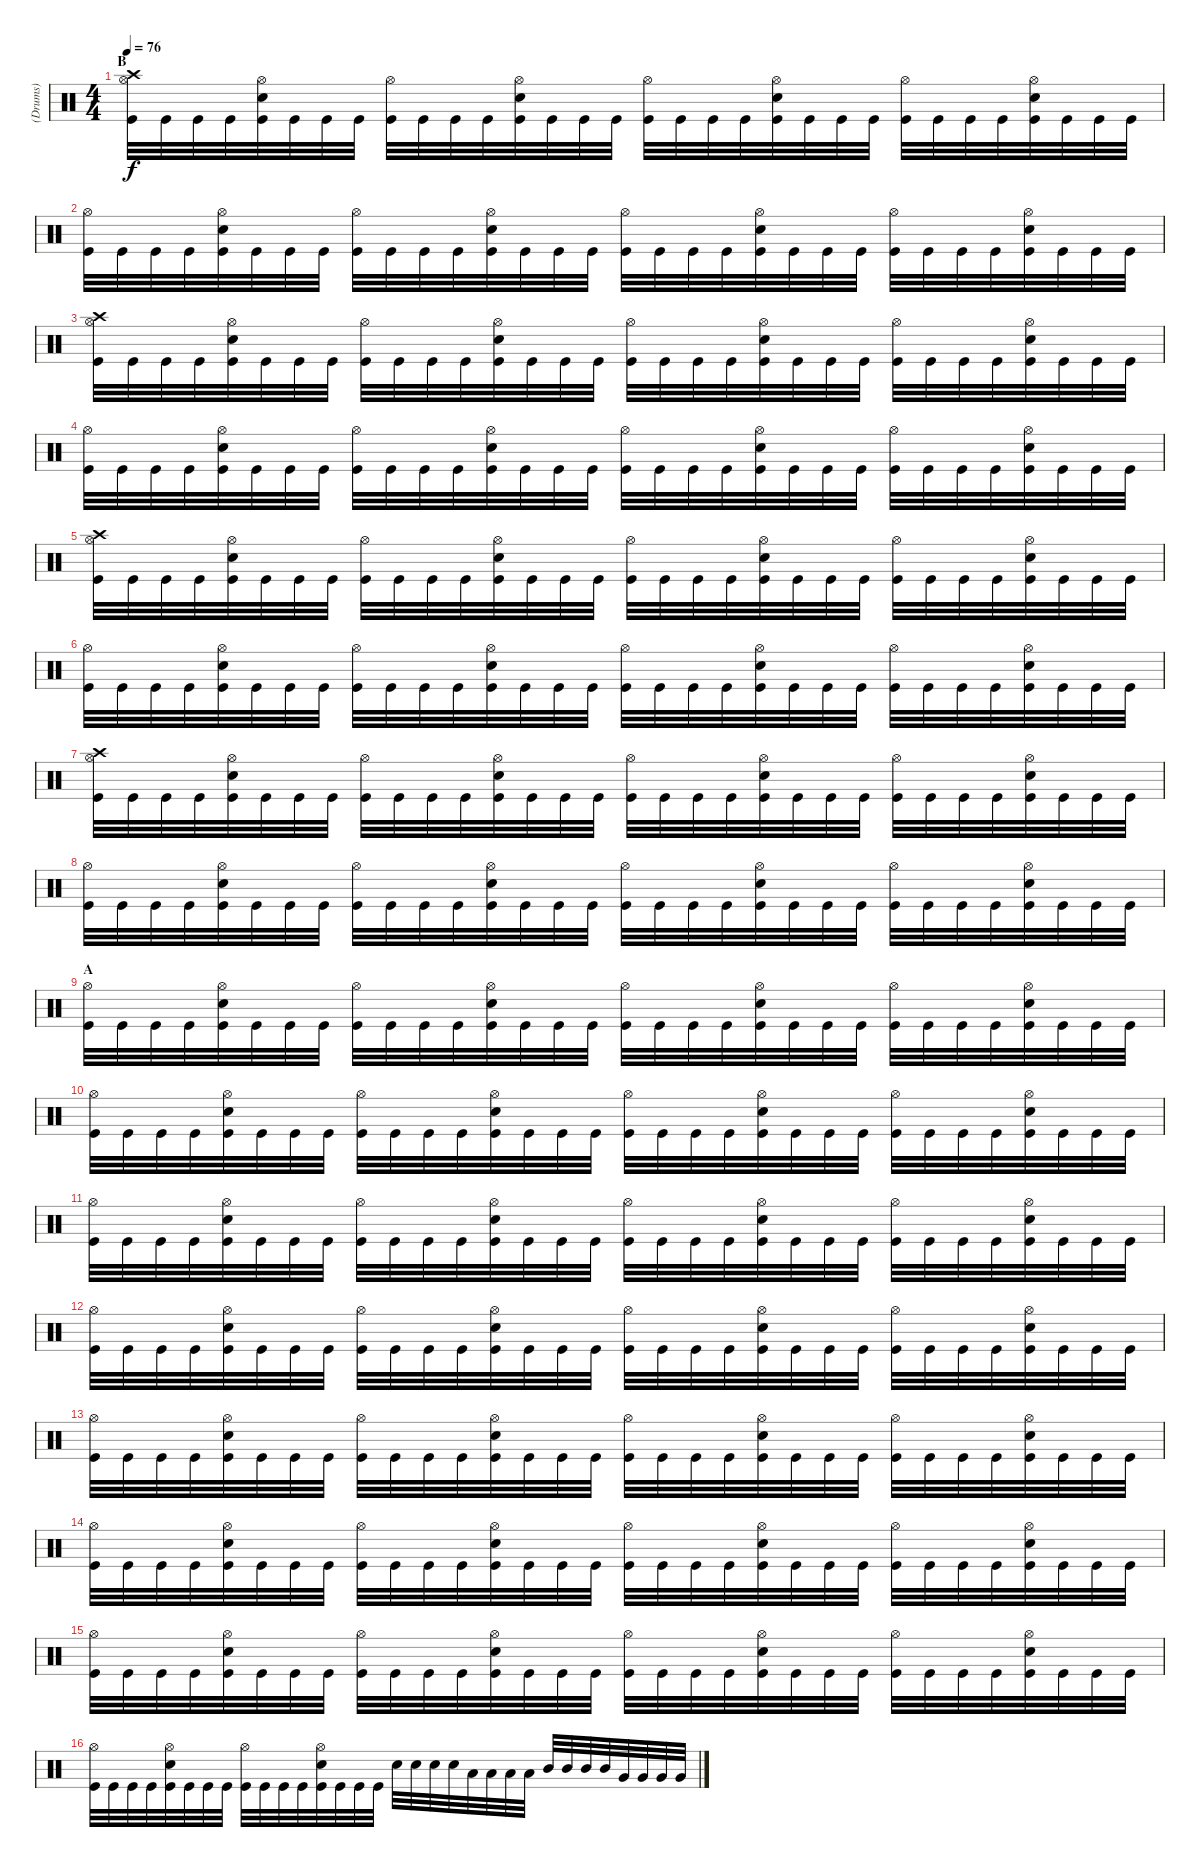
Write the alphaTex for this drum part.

\track ("(Drums)" "(Drums)") {instrument percussion}
\staff {score}
\articulation defaults
\ts (4 4)
\section ("" "B")
\tempo 76
\clef neutral
\ks c
("Crash high (hit)" "Hi-Hat (open)" "Kick (hit)").32{dy f} "Kick (hit)".32 "Kick (hit)".32 "Kick (hit)".32 ("Hi-Hat (open)" "Electric Snare (hit)" "Kick (hit)").32 "Kick (hit)".32 "Kick (hit)".32 "Kick (hit)".32 ("Hi-Hat (open)" "Kick (hit)").32 "Kick (hit)".32 "Kick (hit)".32 "Kick (hit)".32 ("Hi-Hat (open)" "Electric Snare (hit)" "Kick (hit)").32 "Kick (hit)".32 "Kick (hit)".32 "Kick (hit)".32 ("Hi-Hat (open)" "Kick (hit)").32 "Kick (hit)".32 "Kick (hit)".32 "Kick (hit)".32 ("Hi-Hat (open)" "Electric Snare (hit)" "Kick (hit)").32 "Kick (hit)".32 "Kick (hit)".32 "Kick (hit)".32 ("Hi-Hat (open)" "Kick (hit)").32 "Kick (hit)".32 "Kick (hit)".32 "Kick (hit)".32 ("Hi-Hat (open)" "Electric Snare (hit)" "Kick (hit)").32 "Kick (hit)".32 "Kick (hit)".32 "Kick (hit)".32 |
("Hi-Hat (open)" "Kick (hit)").32 "Kick (hit)".32 "Kick (hit)".32 "Kick (hit)".32 ("Hi-Hat (open)" "Electric Snare (hit)" "Kick (hit)").32 "Kick (hit)".32 "Kick (hit)".32 "Kick (hit)".32 ("Hi-Hat (open)" "Kick (hit)").32 "Kick (hit)".32 "Kick (hit)".32 "Kick (hit)".32 ("Hi-Hat (open)" "Electric Snare (hit)" "Kick (hit)").32 "Kick (hit)".32 "Kick (hit)".32 "Kick (hit)".32 ("Hi-Hat (open)" "Kick (hit)").32 "Kick (hit)".32 "Kick (hit)".32 "Kick (hit)".32 ("Hi-Hat (open)" "Electric Snare (hit)" "Kick (hit)").32 "Kick (hit)".32 "Kick (hit)".32 "Kick (hit)".32 ("Hi-Hat (open)" "Kick (hit)").32 "Kick (hit)".32 "Kick (hit)".32 "Kick (hit)".32 ("Hi-Hat (open)" "Electric Snare (hit)" "Kick (hit)").32 "Kick (hit)".32 "Kick (hit)".32 "Kick (hit)".32 |
("Crash high (hit)" "Hi-Hat (open)" "Kick (hit)").32 "Kick (hit)".32 "Kick (hit)".32 "Kick (hit)".32 ("Hi-Hat (open)" "Electric Snare (hit)" "Kick (hit)").32 "Kick (hit)".32 "Kick (hit)".32 "Kick (hit)".32 ("Hi-Hat (open)" "Kick (hit)").32 "Kick (hit)".32 "Kick (hit)".32 "Kick (hit)".32 ("Hi-Hat (open)" "Electric Snare (hit)" "Kick (hit)").32 "Kick (hit)".32 "Kick (hit)".32 "Kick (hit)".32 ("Hi-Hat (open)" "Kick (hit)").32 "Kick (hit)".32 "Kick (hit)".32 "Kick (hit)".32 ("Hi-Hat (open)" "Electric Snare (hit)" "Kick (hit)").32 "Kick (hit)".32 "Kick (hit)".32 "Kick (hit)".32 ("Hi-Hat (open)" "Kick (hit)").32 "Kick (hit)".32 "Kick (hit)".32 "Kick (hit)".32 ("Hi-Hat (open)" "Electric Snare (hit)" "Kick (hit)").32 "Kick (hit)".32 "Kick (hit)".32 "Kick (hit)".32 |
("Hi-Hat (open)" "Kick (hit)").32 "Kick (hit)".32 "Kick (hit)".32 "Kick (hit)".32 ("Hi-Hat (open)" "Electric Snare (hit)" "Kick (hit)").32 "Kick (hit)".32 "Kick (hit)".32 "Kick (hit)".32 ("Hi-Hat (open)" "Kick (hit)").32 "Kick (hit)".32 "Kick (hit)".32 "Kick (hit)".32 ("Hi-Hat (open)" "Electric Snare (hit)" "Kick (hit)").32 "Kick (hit)".32 "Kick (hit)".32 "Kick (hit)".32 ("Hi-Hat (open)" "Kick (hit)").32 "Kick (hit)".32 "Kick (hit)".32 "Kick (hit)".32 ("Hi-Hat (open)" "Electric Snare (hit)" "Kick (hit)").32 "Kick (hit)".32 "Kick (hit)".32 "Kick (hit)".32 ("Hi-Hat (open)" "Kick (hit)").32 "Kick (hit)".32 "Kick (hit)".32 "Kick (hit)".32 ("Hi-Hat (open)" "Electric Snare (hit)" "Kick (hit)").32 "Kick (hit)".32 "Kick (hit)".32 "Kick (hit)".32 |
("Crash high (hit)" "Hi-Hat (open)" "Kick (hit)").32 "Kick (hit)".32 "Kick (hit)".32 "Kick (hit)".32 ("Hi-Hat (open)" "Electric Snare (hit)" "Kick (hit)").32 "Kick (hit)".32 "Kick (hit)".32 "Kick (hit)".32 ("Hi-Hat (open)" "Kick (hit)").32 "Kick (hit)".32 "Kick (hit)".32 "Kick (hit)".32 ("Hi-Hat (open)" "Electric Snare (hit)" "Kick (hit)").32 "Kick (hit)".32 "Kick (hit)".32 "Kick (hit)".32 ("Hi-Hat (open)" "Kick (hit)").32 "Kick (hit)".32 "Kick (hit)".32 "Kick (hit)".32 ("Hi-Hat (open)" "Electric Snare (hit)" "Kick (hit)").32 "Kick (hit)".32 "Kick (hit)".32 "Kick (hit)".32 ("Hi-Hat (open)" "Kick (hit)").32 "Kick (hit)".32 "Kick (hit)".32 "Kick (hit)".32 ("Hi-Hat (open)" "Electric Snare (hit)" "Kick (hit)").32 "Kick (hit)".32 "Kick (hit)".32 "Kick (hit)".32 |
("Hi-Hat (open)" "Kick (hit)").32 "Kick (hit)".32 "Kick (hit)".32 "Kick (hit)".32 ("Hi-Hat (open)" "Electric Snare (hit)" "Kick (hit)").32 "Kick (hit)".32 "Kick (hit)".32 "Kick (hit)".32 ("Hi-Hat (open)" "Kick (hit)").32 "Kick (hit)".32 "Kick (hit)".32 "Kick (hit)".32 ("Hi-Hat (open)" "Electric Snare (hit)" "Kick (hit)").32 "Kick (hit)".32 "Kick (hit)".32 "Kick (hit)".32 ("Hi-Hat (open)" "Kick (hit)").32 "Kick (hit)".32 "Kick (hit)".32 "Kick (hit)".32 ("Hi-Hat (open)" "Electric Snare (hit)" "Kick (hit)").32 "Kick (hit)".32 "Kick (hit)".32 "Kick (hit)".32 ("Hi-Hat (open)" "Kick (hit)").32 "Kick (hit)".32 "Kick (hit)".32 "Kick (hit)".32 ("Hi-Hat (open)" "Electric Snare (hit)" "Kick (hit)").32 "Kick (hit)".32 "Kick (hit)".32 "Kick (hit)".32 |
("Crash high (hit)" "Hi-Hat (open)" "Kick (hit)").32 "Kick (hit)".32 "Kick (hit)".32 "Kick (hit)".32 ("Hi-Hat (open)" "Electric Snare (hit)" "Kick (hit)").32 "Kick (hit)".32 "Kick (hit)".32 "Kick (hit)".32 ("Hi-Hat (open)" "Kick (hit)").32 "Kick (hit)".32 "Kick (hit)".32 "Kick (hit)".32 ("Hi-Hat (open)" "Electric Snare (hit)" "Kick (hit)").32 "Kick (hit)".32 "Kick (hit)".32 "Kick (hit)".32 ("Hi-Hat (open)" "Kick (hit)").32 "Kick (hit)".32 "Kick (hit)".32 "Kick (hit)".32 ("Hi-Hat (open)" "Electric Snare (hit)" "Kick (hit)").32 "Kick (hit)".32 "Kick (hit)".32 "Kick (hit)".32 ("Hi-Hat (open)" "Kick (hit)").32 "Kick (hit)".32 "Kick (hit)".32 "Kick (hit)".32 ("Hi-Hat (open)" "Electric Snare (hit)" "Kick (hit)").32 "Kick (hit)".32 "Kick (hit)".32 "Kick (hit)".32 |
("Hi-Hat (open)" "Kick (hit)").32 "Kick (hit)".32 "Kick (hit)".32 "Kick (hit)".32 ("Hi-Hat (open)" "Electric Snare (hit)" "Kick (hit)").32 "Kick (hit)".32 "Kick (hit)".32 "Kick (hit)".32 ("Hi-Hat (open)" "Kick (hit)").32 "Kick (hit)".32 "Kick (hit)".32 "Kick (hit)".32 ("Hi-Hat (open)" "Electric Snare (hit)" "Kick (hit)").32 "Kick (hit)".32 "Kick (hit)".32 "Kick (hit)".32 ("Hi-Hat (open)" "Kick (hit)").32 "Kick (hit)".32 "Kick (hit)".32 "Kick (hit)".32 ("Hi-Hat (open)" "Electric Snare (hit)" "Kick (hit)").32 "Kick (hit)".32 "Kick (hit)".32 "Kick (hit)".32 ("Hi-Hat (open)" "Kick (hit)").32 "Kick (hit)".32 "Kick (hit)".32 "Kick (hit)".32 ("Hi-Hat (open)" "Electric Snare (hit)" "Kick (hit)").32 "Kick (hit)".32 "Kick (hit)".32 "Kick (hit)".32 |
\section ("" "A")
("Hi-Hat (open)" "Kick (hit)").32 "Kick (hit)".32 "Kick (hit)".32 "Kick (hit)".32 ("Hi-Hat (open)" "Electric Snare (hit)" "Kick (hit)").32 "Kick (hit)".32 "Kick (hit)".32 "Kick (hit)".32 ("Hi-Hat (open)" "Kick (hit)").32 "Kick (hit)".32 "Kick (hit)".32 "Kick (hit)".32 ("Hi-Hat (open)" "Electric Snare (hit)" "Kick (hit)").32 "Kick (hit)".32 "Kick (hit)".32 "Kick (hit)".32 ("Hi-Hat (open)" "Kick (hit)").32 "Kick (hit)".32 "Kick (hit)".32 "Kick (hit)".32 ("Hi-Hat (open)" "Electric Snare (hit)" "Kick (hit)").32 "Kick (hit)".32 "Kick (hit)".32 "Kick (hit)".32 ("Hi-Hat (open)" "Kick (hit)").32 "Kick (hit)".32 "Kick (hit)".32 "Kick (hit)".32 ("Hi-Hat (open)" "Electric Snare (hit)" "Kick (hit)").32 "Kick (hit)".32 "Kick (hit)".32 "Kick (hit)".32 |
("Hi-Hat (open)" "Kick (hit)").32 "Kick (hit)".32 "Kick (hit)".32 "Kick (hit)".32 ("Hi-Hat (open)" "Electric Snare (hit)" "Kick (hit)").32 "Kick (hit)".32 "Kick (hit)".32 "Kick (hit)".32 ("Hi-Hat (open)" "Kick (hit)").32 "Kick (hit)".32 "Kick (hit)".32 "Kick (hit)".32 ("Hi-Hat (open)" "Electric Snare (hit)" "Kick (hit)").32 "Kick (hit)".32 "Kick (hit)".32 "Kick (hit)".32 ("Hi-Hat (open)" "Kick (hit)").32 "Kick (hit)".32 "Kick (hit)".32 "Kick (hit)".32 ("Hi-Hat (open)" "Electric Snare (hit)" "Kick (hit)").32 "Kick (hit)".32 "Kick (hit)".32 "Kick (hit)".32 ("Hi-Hat (open)" "Kick (hit)").32 "Kick (hit)".32 "Kick (hit)".32 "Kick (hit)".32 ("Hi-Hat (open)" "Electric Snare (hit)" "Kick (hit)").32 "Kick (hit)".32 "Kick (hit)".32 "Kick (hit)".32 |
("Hi-Hat (open)" "Kick (hit)").32 "Kick (hit)".32 "Kick (hit)".32 "Kick (hit)".32 ("Hi-Hat (open)" "Electric Snare (hit)" "Kick (hit)").32 "Kick (hit)".32 "Kick (hit)".32 "Kick (hit)".32 ("Hi-Hat (open)" "Kick (hit)").32 "Kick (hit)".32 "Kick (hit)".32 "Kick (hit)".32 ("Hi-Hat (open)" "Electric Snare (hit)" "Kick (hit)").32 "Kick (hit)".32 "Kick (hit)".32 "Kick (hit)".32 ("Hi-Hat (open)" "Kick (hit)").32 "Kick (hit)".32 "Kick (hit)".32 "Kick (hit)".32 ("Hi-Hat (open)" "Electric Snare (hit)" "Kick (hit)").32 "Kick (hit)".32 "Kick (hit)".32 "Kick (hit)".32 ("Hi-Hat (open)" "Kick (hit)").32 "Kick (hit)".32 "Kick (hit)".32 "Kick (hit)".32 ("Hi-Hat (open)" "Electric Snare (hit)" "Kick (hit)").32 "Kick (hit)".32 "Kick (hit)".32 "Kick (hit)".32 |
("Hi-Hat (open)" "Kick (hit)").32 "Kick (hit)".32 "Kick (hit)".32 "Kick (hit)".32 ("Hi-Hat (open)" "Electric Snare (hit)" "Kick (hit)").32 "Kick (hit)".32 "Kick (hit)".32 "Kick (hit)".32 ("Hi-Hat (open)" "Kick (hit)").32 "Kick (hit)".32 "Kick (hit)".32 "Kick (hit)".32 ("Hi-Hat (open)" "Electric Snare (hit)" "Kick (hit)").32 "Kick (hit)".32 "Kick (hit)".32 "Kick (hit)".32 ("Hi-Hat (open)" "Kick (hit)").32 "Kick (hit)".32 "Kick (hit)".32 "Kick (hit)".32 ("Hi-Hat (open)" "Electric Snare (hit)" "Kick (hit)").32 "Kick (hit)".32 "Kick (hit)".32 "Kick (hit)".32 ("Hi-Hat (open)" "Kick (hit)").32 "Kick (hit)".32 "Kick (hit)".32 "Kick (hit)".32 ("Hi-Hat (open)" "Electric Snare (hit)" "Kick (hit)").32 "Kick (hit)".32 "Kick (hit)".32 "Kick (hit)".32 |
("Hi-Hat (open)" "Kick (hit)").32 "Kick (hit)".32 "Kick (hit)".32 "Kick (hit)".32 ("Hi-Hat (open)" "Electric Snare (hit)" "Kick (hit)").32 "Kick (hit)".32 "Kick (hit)".32 "Kick (hit)".32 ("Hi-Hat (open)" "Kick (hit)").32 "Kick (hit)".32 "Kick (hit)".32 "Kick (hit)".32 ("Hi-Hat (open)" "Electric Snare (hit)" "Kick (hit)").32 "Kick (hit)".32 "Kick (hit)".32 "Kick (hit)".32 ("Hi-Hat (open)" "Kick (hit)").32 "Kick (hit)".32 "Kick (hit)".32 "Kick (hit)".32 ("Hi-Hat (open)" "Electric Snare (hit)" "Kick (hit)").32 "Kick (hit)".32 "Kick (hit)".32 "Kick (hit)".32 ("Hi-Hat (open)" "Kick (hit)").32 "Kick (hit)".32 "Kick (hit)".32 "Kick (hit)".32 ("Hi-Hat (open)" "Electric Snare (hit)" "Kick (hit)").32 "Kick (hit)".32 "Kick (hit)".32 "Kick (hit)".32 |
("Hi-Hat (open)" "Kick (hit)").32 "Kick (hit)".32 "Kick (hit)".32 "Kick (hit)".32 ("Hi-Hat (open)" "Electric Snare (hit)" "Kick (hit)").32 "Kick (hit)".32 "Kick (hit)".32 "Kick (hit)".32 ("Hi-Hat (open)" "Kick (hit)").32 "Kick (hit)".32 "Kick (hit)".32 "Kick (hit)".32 ("Hi-Hat (open)" "Electric Snare (hit)" "Kick (hit)").32 "Kick (hit)".32 "Kick (hit)".32 "Kick (hit)".32 ("Hi-Hat (open)" "Kick (hit)").32 "Kick (hit)".32 "Kick (hit)".32 "Kick (hit)".32 ("Hi-Hat (open)" "Electric Snare (hit)" "Kick (hit)").32 "Kick (hit)".32 "Kick (hit)".32 "Kick (hit)".32 ("Hi-Hat (open)" "Kick (hit)").32 "Kick (hit)".32 "Kick (hit)".32 "Kick (hit)".32 ("Hi-Hat (open)" "Electric Snare (hit)" "Kick (hit)").32 "Kick (hit)".32 "Kick (hit)".32 "Kick (hit)".32 |
("Hi-Hat (open)" "Kick (hit)").32 "Kick (hit)".32 "Kick (hit)".32 "Kick (hit)".32 ("Hi-Hat (open)" "Electric Snare (hit)" "Kick (hit)").32 "Kick (hit)".32 "Kick (hit)".32 "Kick (hit)".32 ("Hi-Hat (open)" "Kick (hit)").32 "Kick (hit)".32 "Kick (hit)".32 "Kick (hit)".32 ("Hi-Hat (open)" "Electric Snare (hit)" "Kick (hit)").32 "Kick (hit)".32 "Kick (hit)".32 "Kick (hit)".32 ("Hi-Hat (open)" "Kick (hit)").32 "Kick (hit)".32 "Kick (hit)".32 "Kick (hit)".32 ("Hi-Hat (open)" "Electric Snare (hit)" "Kick (hit)").32 "Kick (hit)".32 "Kick (hit)".32 "Kick (hit)".32 ("Hi-Hat (open)" "Kick (hit)").32 "Kick (hit)".32 "Kick (hit)".32 "Kick (hit)".32 ("Hi-Hat (open)" "Electric Snare (hit)" "Kick (hit)").32 "Kick (hit)".32 "Kick (hit)".32 "Kick (hit)".32 |
("Hi-Hat (open)" "Kick (hit)").32 "Kick (hit)".32 "Kick (hit)".32 "Kick (hit)".32 ("Hi-Hat (open)" "Electric Snare (hit)" "Kick (hit)").32 "Kick (hit)".32 "Kick (hit)".32 "Kick (hit)".32 ("Hi-Hat (open)" "Kick (hit)").32 "Kick (hit)".32 "Kick (hit)".32 "Kick (hit)".32 ("Hi-Hat (open)" "Electric Snare (hit)" "Kick (hit)").32 "Kick (hit)".32 "Kick (hit)".32 "Kick (hit)".32 "Electric Snare (hit)".32 "Electric Snare (hit)".32 "Electric Snare (hit)".32 "Electric Snare (hit)".32 "Low Tom (hit)".32 "Low Tom (hit)".32 "Low Tom (hit)".32 "Low Tom (hit)".32 "Mid Tom (hit)".32 "Mid Tom (hit)".32 "Mid Tom (hit)".32 "Mid Tom (hit)".32 "Very Low Tom (hit)".32 "Very Low Tom (hit)".32 "Very Low Tom (hit)".32 "Very Low Tom (hit)".32
